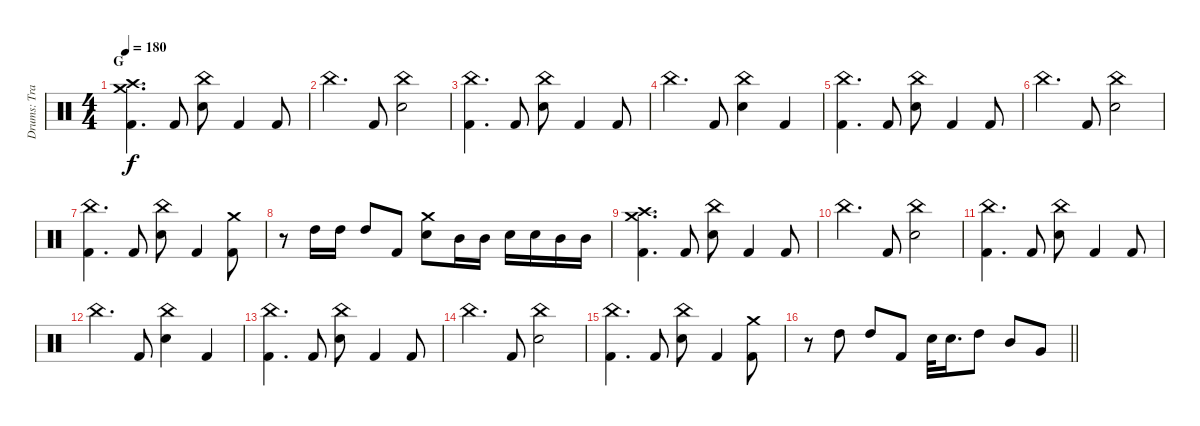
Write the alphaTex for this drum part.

\track ("Drums: Travis Clarke" "Drums: Tra") {instrument percussion}
\staff {score}
\articulation defaults
\ts (4 4)
\section ("" "G")
\tempo 180
\clef neutral
\ks c
("Kick (hit) 2" "Crash high (hit)" "Crash medium (hit)").4{d dy f} "Kick (hit) 2".8 ("Snare (hit) 2" "China (hit)").8 "Kick (hit) 2".4 "Kick (hit) 2".8 |
"China (hit)".4{d} "Kick (hit) 2".8 ("Snare (hit) 2" "China (hit)").2 |
("Kick (hit) 2" "China (hit)").4{d} "Kick (hit) 2".8 ("Snare (hit) 2" "China (hit)").8 "Kick (hit) 2".4 "Kick (hit) 2".8 |
"China (hit)".4{d} "Kick (hit) 2".8 ("Snare (hit) 2" "China (hit)").4 "Kick (hit) 2".4 |
("Kick (hit) 2" "China (hit)").4{d} "Kick (hit) 2".8 ("Snare (hit) 2" "China (hit)").8 "Kick (hit) 2".4 "Kick (hit) 2".8 |
"China (hit)".4{d} "Kick (hit) 2".8 ("Snare (hit) 2" "China (hit)").2 |
("Kick (hit) 2" "China (hit)").4{d} "Kick (hit) 2".8 ("Snare (hit) 2" "China (hit)").8 "Kick (hit) 2".4 ("Kick (hit) 2" "Crash medium (hit)").8 |
r.8 "High Tom (hit)".16 "High Tom (hit)".16 "High Tom (hit)".8 "Kick (hit) 2".8 ("Snare (hit) 2" "Crash medium (hit)").8 "Mid Tom (hit)".16 "Mid Tom (hit)".16 "Snare (hit) 2".16 "Snare (hit) 2".16 "Mid Tom (hit)".16 "Mid Tom (hit)".16 |
("Kick (hit) 2" "Crash high (hit)" "Crash medium (hit)").4{d} "Kick (hit) 2".8 ("Snare (hit) 2" "China (hit)").8 "Kick (hit) 2".4 "Kick (hit) 2".8 |
"China (hit)".4{d} "Kick (hit) 2".8 ("Snare (hit) 2" "China (hit)").2 |
("Kick (hit) 2" "China (hit)").4{d} "Kick (hit) 2".8 ("Snare (hit) 2" "China (hit)").8 "Kick (hit) 2".4 "Kick (hit) 2".8 |
"China (hit)".4{d} "Kick (hit) 2".8 ("Snare (hit) 2" "China (hit)").4 "Kick (hit) 2".4 |
("Kick (hit) 2" "China (hit)").4{d} "Kick (hit) 2".8 ("Snare (hit) 2" "China (hit)").8 "Kick (hit) 2".4 "Kick (hit) 2".8 |
"China (hit)".4{d} "Kick (hit) 2".8 ("Snare (hit) 2" "China (hit)").2 |
("Kick (hit) 2" "China (hit)").4{d} "Kick (hit) 2".8 ("Snare (hit) 2" "China (hit)").8 "Kick (hit) 2".4 ("Kick (hit) 2" "Crash medium (hit)").8 |
\barLineRight lightlight
r.8 "High Tom (hit)".8 "High Tom (hit)".8 "Kick (hit) 2".8 "Snare (hit) 2".32 "Snare (hit) 2".16{d} "High Tom (hit)".8 "Mid Tom (hit)".8 "Very Low Tom (hit)".8
